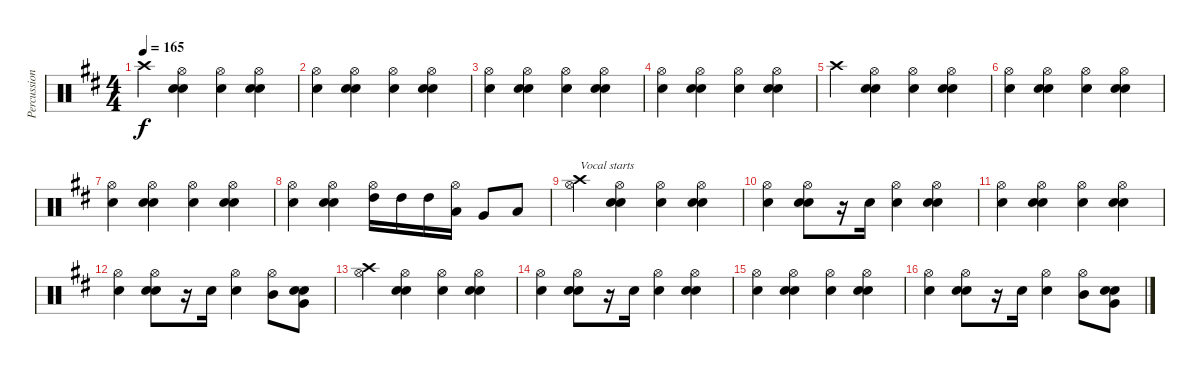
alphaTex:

\track ("Percussion" "Percussion") {instrument percussion}
\staff {score}
\articulation defaults
\ts (4 4)
\tempo 165
\clef neutral
\ks d "Crash high (hit)".4{dy f}
("Hi-Hat (open)" "Snare (hit) 2" "Electric Snare (hit)").4 ("Hi-Hat (open)" "Snare (hit) 2").4 ("Hi-Hat (open)" "Snare (hit) 2" "Electric Snare (hit)").4 |
("Hi-Hat (open)" "Snare (hit) 2").4 ("Hi-Hat (open)" "Snare (hit) 2" "Electric Snare (hit)").4 ("Hi-Hat (open)" "Snare (hit) 2").4 ("Hi-Hat (open)" "Snare (hit) 2" "Electric Snare (hit)").4 |
("Hi-Hat (open)" "Snare (hit) 2").4 ("Hi-Hat (open)" "Snare (hit) 2" "Electric Snare (hit)").4 ("Hi-Hat (open)" "Snare (hit) 2").4 ("Hi-Hat (open)" "Snare (hit) 2" "Electric Snare (hit)").4 |
("Hi-Hat (open)" "Snare (hit) 2").4 ("Hi-Hat (open)" "Snare (hit) 2" "Electric Snare (hit)").4 ("Hi-Hat (open)" "Snare (hit) 2").4 ("Hi-Hat (open)" "Snare (hit) 2" "Electric Snare (hit)").4 |
"Crash high (hit)".4 ("Hi-Hat (open)" "Snare (hit) 2" "Electric Snare (hit)").4 ("Hi-Hat (open)" "Snare (hit) 2").4 ("Hi-Hat (open)" "Snare (hit) 2" "Electric Snare (hit)").4 |
("Hi-Hat (open)" "Snare (hit) 2").4 ("Hi-Hat (open)" "Snare (hit) 2" "Electric Snare (hit)").4 ("Hi-Hat (open)" "Snare (hit) 2").4 ("Hi-Hat (open)" "Snare (hit) 2" "Electric Snare (hit)").4 |
("Hi-Hat (open)" "Snare (hit) 2").4 ("Hi-Hat (open)" "Snare (hit) 2" "Electric Snare (hit)").4 ("Hi-Hat (open)" "Snare (hit) 2").4 ("Hi-Hat (open)" "Snare (hit) 2" "Electric Snare (hit)").4 |
("Hi-Hat (open)" "Snare (hit) 2").4 ("Hi-Hat (open)" "Snare (hit) 2" "Electric Snare (hit)").4 ("High Tom (hit)" "Hi-Hat (open)").16 "High Tom (hit)".16 "High Tom (hit)".16 ("Low Tom (hit)" "Hi-Hat (open)").16 "Very Low Tom (hit)".8 "Low Floor Tom (hit)".8 |
("Hi-Hat (open)" "Crash high (hit)").4{txt "Vocal starts"} ("Hi-Hat (open)" "Snare (hit) 2" "Electric Snare (hit)").4 ("Hi-Hat (open)" "Snare (hit) 2").4 ("Hi-Hat (open)" "Snare (hit) 2" "Electric Snare (hit)").4 |
("Hi-Hat (open)" "Snare (hit) 2").4 ("Hi-Hat (open)" "Snare (hit) 2" "Electric Snare (hit)").8 r.16 "Snare (hit) 2".16 ("Hi-Hat (open)" "Snare (hit) 2").4 ("Hi-Hat (open)" "Snare (hit) 2" "Electric Snare (hit)").4 |
("Hi-Hat (open)" "Snare (hit) 2").4 ("Hi-Hat (open)" "Snare (hit) 2" "Electric Snare (hit)").4 ("Hi-Hat (open)" "Snare (hit) 2").4 ("Hi-Hat (open)" "Snare (hit) 2" "Electric Snare (hit)").4 |
("Hi-Hat (open)" "Snare (hit) 2").4 ("Hi-Hat (open)" "Snare (hit) 2" "Electric Snare (hit)").8 r.16 "Snare (hit) 2".16 ("Hi-Hat (open)" "Snare (hit) 2").4 ("Mid Tom (hit)" "Hi-Hat (open)").8 ("Very Low Tom (hit)" "Snare (hit) 2" "Electric Snare (hit)").8 |
("Hi-Hat (open)" "Crash high (hit)").4 ("Hi-Hat (open)" "Snare (hit) 2" "Electric Snare (hit)").4 ("Hi-Hat (open)" "Snare (hit) 2").4 ("Hi-Hat (open)" "Snare (hit) 2" "Electric Snare (hit)").4 |
("Hi-Hat (open)" "Snare (hit) 2").4 ("Hi-Hat (open)" "Snare (hit) 2" "Electric Snare (hit)").8 r.16 "Snare (hit) 2".16 ("Hi-Hat (open)" "Snare (hit) 2").4 ("Hi-Hat (open)" "Snare (hit) 2" "Electric Snare (hit)").4 |
("Hi-Hat (open)" "Snare (hit) 2").4 ("Hi-Hat (open)" "Snare (hit) 2" "Electric Snare (hit)").4 ("Hi-Hat (open)" "Snare (hit) 2").4 ("Hi-Hat (open)" "Snare (hit) 2" "Electric Snare (hit)").4 |
("Hi-Hat (open)" "Snare (hit) 2").4 ("Hi-Hat (open)" "Snare (hit) 2" "Electric Snare (hit)").8 r.16 "Snare (hit) 2".16 ("Hi-Hat (open)" "Snare (hit) 2").4 ("Mid Tom (hit)" "Hi-Hat (open)").8 ("Very Low Tom (hit)" "Snare (hit) 2" "Electric Snare (hit)").8
